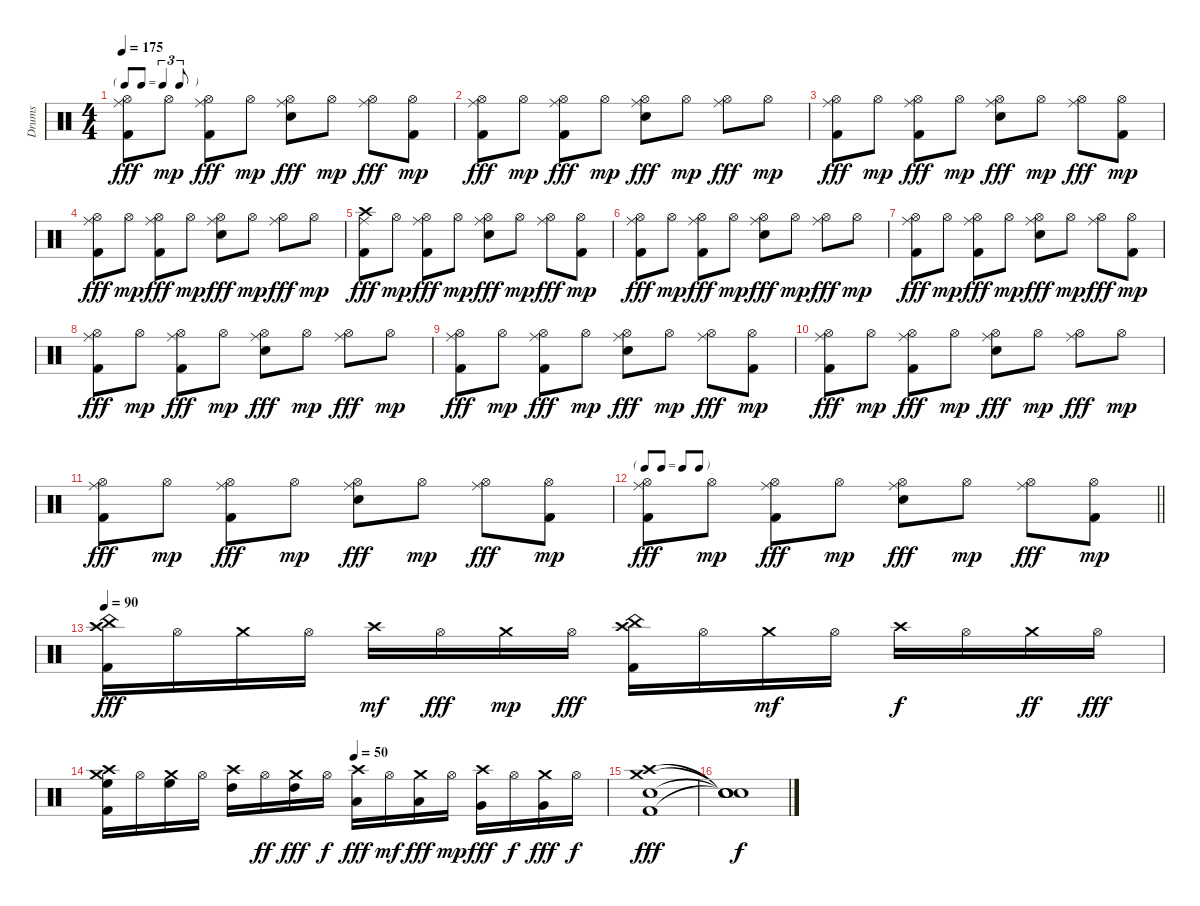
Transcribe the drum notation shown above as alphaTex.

\track ("Drums" "Drums") {instrument percussion}
\staff {score}
\articulation defaults
\ts (4 4)
\tf triplet8th
\tempo 175
\clef neutral
\ks c
("Hi-Hat (open)" "Ride (middle)" "Kick (hit) 2").8{dy fff} "Hi-Hat (open)".8{dy mp} ("Hi-Hat (open)" "Ride (middle)" "Kick (hit) 2").8{dy fff} "Hi-Hat (open)".8{dy mp} ("Hi-Hat (open)" "Ride (middle)" "Electric Snare (hit)").8{dy fff} "Hi-Hat (open)".8{dy mp} ("Hi-Hat (open)" "Ride (middle)").8{dy fff} ("Hi-Hat (open)" "Kick (hit) 2").8{dy mp} |
("Hi-Hat (open)" "Ride (middle)" "Kick (hit) 2").8{dy fff} "Hi-Hat (open)".8{dy mp} ("Hi-Hat (open)" "Ride (middle)" "Kick (hit) 2").8{dy fff} "Hi-Hat (open)".8{dy mp} ("Hi-Hat (open)" "Ride (middle)" "Electric Snare (hit)").8{dy fff} "Hi-Hat (open)".8{dy mp} ("Hi-Hat (open)" "Ride (middle)").8{dy fff} "Hi-Hat (open)".8{dy mp} |
("Hi-Hat (open)" "Ride (middle)" "Kick (hit) 2").8{dy fff} "Hi-Hat (open)".8{dy mp} ("Hi-Hat (open)" "Ride (middle)" "Kick (hit) 2").8{dy fff} "Hi-Hat (open)".8{dy mp} ("Hi-Hat (open)" "Ride (middle)" "Electric Snare (hit)").8{dy fff} "Hi-Hat (open)".8{dy mp} ("Hi-Hat (open)" "Ride (middle)").8{dy fff} ("Hi-Hat (open)" "Kick (hit) 2").8{dy mp} |
("Hi-Hat (open)" "Ride (middle)" "Kick (hit) 2").8{dy fff} "Hi-Hat (open)".8{dy mp} ("Hi-Hat (open)" "Ride (middle)" "Kick (hit) 2").8{dy fff} "Hi-Hat (open)".8{dy mp} ("Hi-Hat (open)" "Ride (middle)" "Electric Snare (hit)").8{dy fff} "Hi-Hat (open)".8{dy mp} ("Hi-Hat (open)" "Ride (middle)").8{dy fff} "Hi-Hat (open)".8{dy mp} |
("Crash high (hit)" "Ride (middle)" "Kick (hit) 2").8{dy fff} "Hi-Hat (open)".8{dy mp} ("Hi-Hat (open)" "Ride (middle)" "Kick (hit) 2").8{dy fff} "Hi-Hat (open)".8{dy mp} ("Hi-Hat (open)" "Ride (middle)" "Electric Snare (hit)").8{dy fff} "Hi-Hat (open)".8{dy mp} ("Hi-Hat (open)" "Ride (middle)").8{dy fff} ("Hi-Hat (open)" "Kick (hit) 2").8{dy mp} |
("Hi-Hat (open)" "Ride (middle)" "Kick (hit) 2").8{dy fff} "Hi-Hat (open)".8{dy mp} ("Hi-Hat (open)" "Ride (middle)" "Kick (hit) 2").8{dy fff} "Hi-Hat (open)".8{dy mp} ("Hi-Hat (open)" "Ride (middle)" "Electric Snare (hit)").8{dy fff} "Hi-Hat (open)".8{dy mp} ("Hi-Hat (open)" "Ride (middle)").8{dy fff} "Hi-Hat (open)".8{dy mp} |
("Hi-Hat (open)" "Ride (middle)" "Kick (hit) 2").8{dy fff} "Hi-Hat (open)".8{dy mp} ("Hi-Hat (open)" "Ride (middle)" "Kick (hit) 2").8{dy fff} "Hi-Hat (open)".8{dy mp} ("Hi-Hat (open)" "Ride (middle)" "Electric Snare (hit)").8{dy fff} "Hi-Hat (open)".8{dy mp} ("Hi-Hat (open)" "Ride (middle)").8{dy fff} ("Hi-Hat (open)" "Kick (hit) 2").8{dy mp} |
("Hi-Hat (open)" "Ride (middle)" "Kick (hit) 2").8{dy fff} "Hi-Hat (open)".8{dy mp} ("Hi-Hat (open)" "Ride (middle)" "Kick (hit) 2").8{dy fff} "Hi-Hat (open)".8{dy mp} ("Hi-Hat (open)" "Ride (middle)" "Electric Snare (hit)").8{dy fff} "Hi-Hat (open)".8{dy mp} ("Hi-Hat (open)" "Ride (middle)").8{dy fff} "Hi-Hat (open)".8{dy mp} |
("Hi-Hat (open)" "Ride (middle)" "Kick (hit) 2").8{dy fff} "Hi-Hat (open)".8{dy mp} ("Hi-Hat (open)" "Ride (middle)" "Kick (hit) 2").8{dy fff} "Hi-Hat (open)".8{dy mp} ("Hi-Hat (open)" "Ride (middle)" "Electric Snare (hit)").8{dy fff} "Hi-Hat (open)".8{dy mp} ("Hi-Hat (open)" "Ride (middle)").8{dy fff} ("Hi-Hat (open)" "Kick (hit) 2").8{dy mp} |
("Hi-Hat (open)" "Ride (middle)" "Kick (hit) 2").8{dy fff} "Hi-Hat (open)".8{dy mp} ("Hi-Hat (open)" "Ride (middle)" "Kick (hit) 2").8{dy fff} "Hi-Hat (open)".8{dy mp} ("Hi-Hat (open)" "Ride (middle)" "Electric Snare (hit)").8{dy fff} "Hi-Hat (open)".8{dy mp} ("Hi-Hat (open)" "Ride (middle)").8{dy fff} "Hi-Hat (open)".8{dy mp} |
("Hi-Hat (open)" "Ride (middle)" "Kick (hit) 2").8{dy fff} "Hi-Hat (open)".8{dy mp} ("Hi-Hat (open)" "Ride (middle)" "Kick (hit) 2").8{dy fff} "Hi-Hat (open)".8{dy mp} ("Hi-Hat (open)" "Ride (middle)" "Electric Snare (hit)").8{dy fff} "Hi-Hat (open)".8{dy mp} ("Hi-Hat (open)" "Ride (middle)").8{dy fff} ("Hi-Hat (open)" "Kick (hit) 2").8{dy mp} |
\tf none
\barLineRight lightlight
("Hi-Hat (open)" "Ride (middle)" "Kick (hit) 2").8{dy fff} "Hi-Hat (open)".8{dy mp} ("Hi-Hat (open)" "Ride (middle)" "Kick (hit) 2").8{dy fff} "Hi-Hat (open)".8{dy mp} ("Hi-Hat (open)" "Ride (middle)" "Electric Snare (hit)").8{dy fff} "Hi-Hat (open)".8{dy mp} ("Hi-Hat (open)" "Ride (middle)").8{dy fff} ("Hi-Hat (open)" "Kick (hit) 2").8{dy mp} |
\tempo 90
("Crash high (hit)" "China (hit)" "Kick (hit) 2").16{dy fff} "Hi-Hat (open)".16 "Crash medium (hit)".16 "Hi-Hat (open)".16 "Crash high (hit)".16{dy mf} "Hi-Hat (open)".16{dy fff} "Crash medium (hit)".16{dy mp} "Hi-Hat (open)".16{dy fff} ("Crash high (hit)" "China (hit)" "Kick (hit) 2").16 "Hi-Hat (open)".16 "Crash medium (hit)".16{dy mf} "Hi-Hat (open)".16 "Crash high (hit)".16{dy f} "Hi-Hat (open)".16 "Crash medium (hit)".16{dy ff} "Hi-Hat (open)".16{dy fff} |
\tempo (50 0.5)
("Crash high (hit)" "Crash medium (hit)" "High Floor Tom (hit)" "Kick (hit) 2").16 "Hi-Hat (open)".16 ("Crash medium (hit)" "High Floor Tom (hit)").16 "Hi-Hat (open)".16 ("Crash high (hit)" "High Tom (hit)").16 "Hi-Hat (open)".16{dy ff} ("Crash medium (hit)" "High Tom (hit)").16{dy fff} "Hi-Hat (open)".16{dy f} ("Crash high (hit)" "Low Tom (hit)").16{dy fff} "Hi-Hat (open)".16{dy mf} ("Crash medium (hit)" "Low Tom (hit)").16{dy fff} "Hi-Hat (open)".16{dy mp} ("Crash high (hit)" "Very Low Tom (hit)").16{dy fff} "Hi-Hat (open)".16{dy f} ("Crash medium (hit)" "Very Low Tom (hit)").16{dy fff} "Hi-Hat (open)".16{dy f} |
("Crash high (hit)" "Crash medium (hit)" "Electric Snare (hit)" "Kick (hit) 2").1{dy fff} |
("Snare (hit)"{t} "Snare (hit)"{t} "Snare (hit)"{t} "Snare (hit)"{t}).1{dy f}
